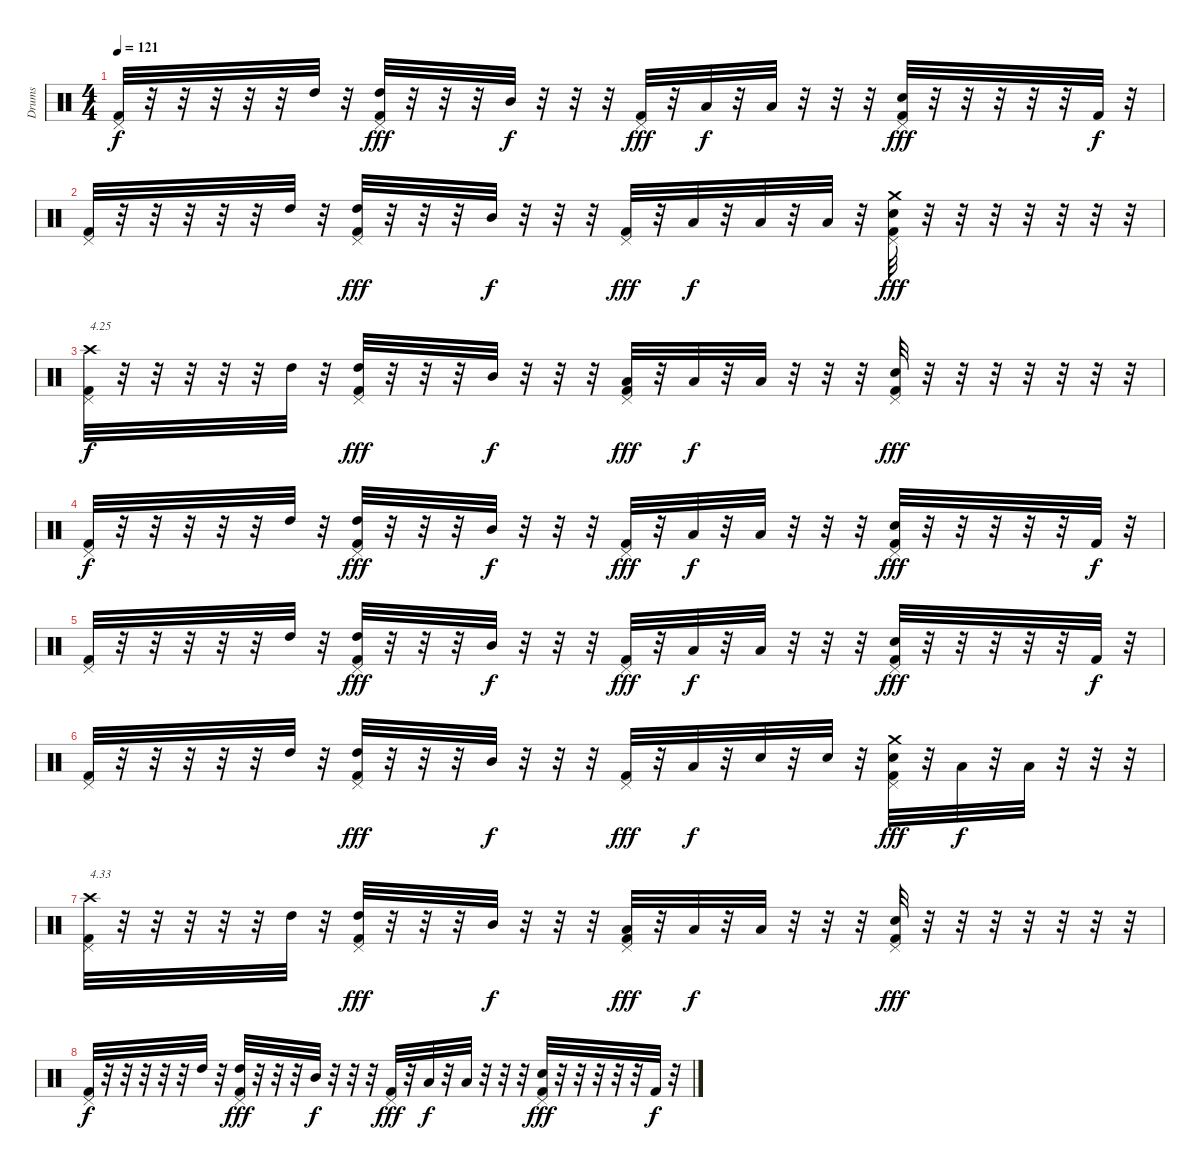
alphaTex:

\track ("Drums" "Drums") {instrument percussion}
\staff {score}
\articulation defaults
\ts (4 4)
\tempo 121
\clef neutral
\ks c
("Pedal Hi-Hat (hit)" "Kick (hit) 2").32{dy f} r.32 r.32 r.32 r.32 r.32 "High Tom (hit)".32 r.32 ("Pedal Hi-Hat (hit)" "Kick (hit) 2" "High Tom (hit)").32{dy fff} r.32 r.32 r.32 "Mid Tom (hit)".32{dy f} r.32 r.32 r.32 ("Pedal Hi-Hat (hit)" "Kick (hit) 2").32{dy fff} r.32 "Low Tom (hit)".32{dy f} r.32 "Low Tom (hit)".32 r.32 r.32 r.32 ("Pedal Hi-Hat (hit)" "Kick (hit) 2" "Electric Snare (hit)").32{dy fff} r.32 r.32 r.32 r.32 r.32 "Kick (hit) 2".32{dy f} r.32 |
("Pedal Hi-Hat (hit)" "Kick (hit) 2").32 r.32 r.32 r.32 r.32 r.32 "High Tom (hit)".32 r.32 ("Pedal Hi-Hat (hit)" "Kick (hit) 2" "High Tom (hit)").32{dy fff} r.32 r.32 r.32 "Mid Tom (hit)".32{dy f} r.32 r.32 r.32 ("Pedal Hi-Hat (hit)" "Kick (hit) 2").32{dy fff} r.32 "Low Tom (hit)".32{dy f} r.32 "Low Tom (hit)".32 r.32 "Low Tom (hit)".32 r.32 ("Pedal Hi-Hat (hit)" "Kick (hit) 2" "Crash medium (hit)" "Electric Snare (hit)").32{dy fff} r.32 r.32 r.32 r.32 r.32 r.32 r.32 |
("Pedal Hi-Hat (hit)" "Kick (hit) 2" "Crash high (hit)").32{txt "4.25" dy f} r.32 r.32 r.32 r.32 r.32 "High Tom (hit)".32 r.32 ("Pedal Hi-Hat (hit)" "Kick (hit) 2" "High Tom (hit)").32{dy fff} r.32 r.32 r.32 "Mid Tom (hit)".32{dy f} r.32 r.32 r.32 ("Pedal Hi-Hat (hit)" "Kick (hit) 2" "Low Tom (hit)").32{dy fff} r.32 "Low Tom (hit)".32{dy f} r.32 "Low Tom (hit)".32 r.32 r.32 r.32 ("Pedal Hi-Hat (hit)" "Kick (hit) 2" "Electric Snare (hit)").32{dy fff} r.32 r.32 r.32 r.32 r.32 r.32 r.32 |
("Pedal Hi-Hat (hit)" "Kick (hit) 2").32{dy f} r.32 r.32 r.32 r.32 r.32 "High Tom (hit)".32 r.32 ("Pedal Hi-Hat (hit)" "Kick (hit) 2" "High Tom (hit)").32{dy fff} r.32 r.32 r.32 "Mid Tom (hit)".32{dy f} r.32 r.32 r.32 ("Pedal Hi-Hat (hit)" "Kick (hit) 2").32{dy fff} r.32 "Low Tom (hit)".32{dy f} r.32 "Low Tom (hit)".32 r.32 r.32 r.32 ("Pedal Hi-Hat (hit)" "Kick (hit) 2" "Electric Snare (hit)").32{dy fff} r.32 r.32 r.32 r.32 r.32 "Kick (hit) 2".32{dy f} r.32 |
("Pedal Hi-Hat (hit)" "Kick (hit) 2").32 r.32 r.32 r.32 r.32 r.32 "High Tom (hit)".32 r.32 ("Pedal Hi-Hat (hit)" "Kick (hit) 2" "High Tom (hit)").32{dy fff} r.32 r.32 r.32 "Mid Tom (hit)".32{dy f} r.32 r.32 r.32 ("Pedal Hi-Hat (hit)" "Kick (hit) 2").32{dy fff} r.32 "Low Tom (hit)".32{dy f} r.32 "Low Tom (hit)".32 r.32 r.32 r.32 ("Pedal Hi-Hat (hit)" "Kick (hit) 2" "Electric Snare (hit)").32{dy fff} r.32 r.32 r.32 r.32 r.32 "Kick (hit) 2".32{dy f} r.32 |
("Pedal Hi-Hat (hit)" "Kick (hit) 2").32 r.32 r.32 r.32 r.32 r.32 "High Tom (hit)".32 r.32 ("Pedal Hi-Hat (hit)" "Kick (hit) 2" "High Tom (hit)").32{dy fff} r.32 r.32 r.32 "Mid Tom (hit)".32{dy f} r.32 r.32 r.32 ("Pedal Hi-Hat (hit)" "Kick (hit) 2").32{dy fff} r.32 "Low Tom (hit)".32{dy f} r.32 "Electric Snare (hit)".32 r.32 "Electric Snare (hit)".32 r.32 ("Pedal Hi-Hat (hit)" "Kick (hit) 2" "Crash medium (hit)" "Electric Snare (hit)").32{dy fff} r.32 "Low Tom (hit)".32{dy f} r.32 "Low Tom (hit)".32 r.32 r.32 r.32 |
("Pedal Hi-Hat (hit)" "Kick (hit) 2" "Crash high (hit)").32{txt "4.33"} r.32 r.32 r.32 r.32 r.32 "High Tom (hit)".32 r.32 ("Pedal Hi-Hat (hit)" "Kick (hit) 2" "High Tom (hit)").32{dy fff} r.32 r.32 r.32 "Mid Tom (hit)".32{dy f} r.32 r.32 r.32 ("Pedal Hi-Hat (hit)" "Kick (hit) 2" "Low Tom (hit)").32{dy fff} r.32 "Low Tom (hit)".32{dy f} r.32 "Low Tom (hit)".32 r.32 r.32 r.32 ("Pedal Hi-Hat (hit)" "Kick (hit) 2" "Electric Snare (hit)").32{dy fff} r.32 r.32 r.32 r.32 r.32 r.32 r.32 |
("Pedal Hi-Hat (hit)" "Kick (hit) 2").32{dy f} r.32 r.32 r.32 r.32 r.32 "High Tom (hit)".32 r.32 ("Pedal Hi-Hat (hit)" "Kick (hit) 2" "High Tom (hit)").32{dy fff} r.32 r.32 r.32 "Mid Tom (hit)".32{dy f} r.32 r.32 r.32 ("Pedal Hi-Hat (hit)" "Kick (hit) 2").32{dy fff} r.32 "Low Tom (hit)".32{dy f} r.32 "Low Tom (hit)".32 r.32 r.32 r.32 ("Pedal Hi-Hat (hit)" "Kick (hit) 2" "Electric Snare (hit)").32{dy fff} r.32 r.32 r.32 r.32 r.32 "Kick (hit) 2".32{dy f} r.32
